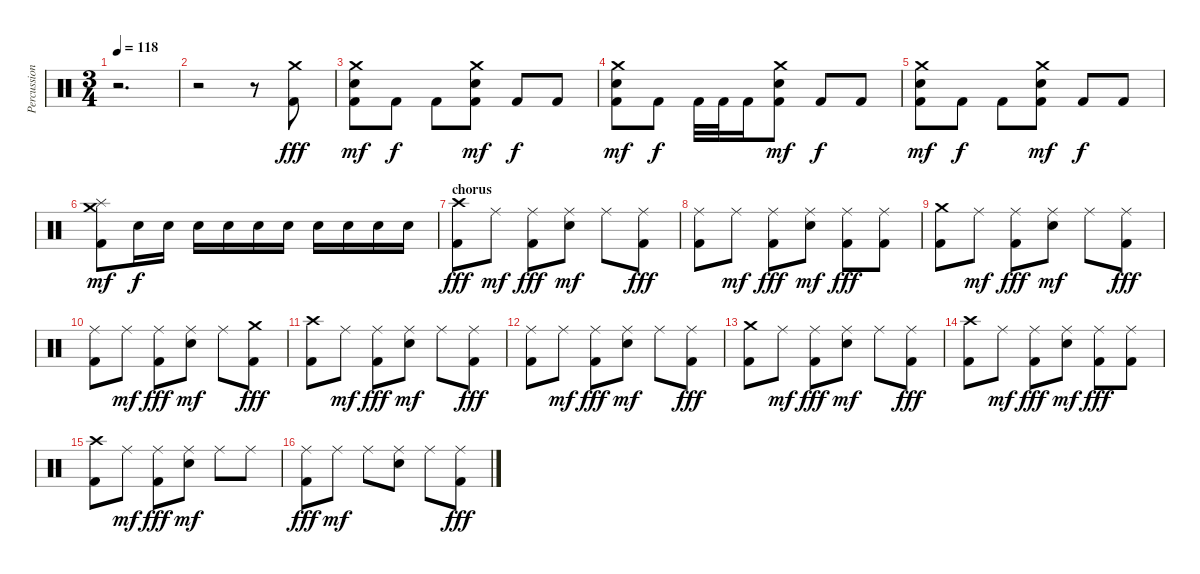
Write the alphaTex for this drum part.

\track ("Percussion" "Percussion") {instrument percussion}
\staff {score}
\articulation defaults
\ts (3 4)
\tempo 118
\clef neutral
\ks c
r.2{d dy fff} |
r.2 r.8 ("Crash medium (hit)" "Kick (hit) 2").8 |
("Crash medium (hit)" "Electric Snare (hit)" "Kick (hit) 2").8{dy mf} "Kick (hit) 2".8{dy f} "Kick (hit) 2".8 ("Crash medium (hit)" "Electric Snare (hit)" "Kick (hit) 2").8{dy mf} "Kick (hit) 2".8{dy f} "Kick (hit) 2".8 |
("Crash medium (hit)" "Electric Snare (hit)" "Kick (hit) 2").8{dy mf} "Kick (hit) 2".8{dy f} "Kick (hit) 2".32 "Kick (hit) 2".32 "Kick (hit) 2".16 ("Crash medium (hit)" "Electric Snare (hit)" "Kick (hit) 2").8{dy mf} "Kick (hit) 2".8{dy f} "Kick (hit) 2".8 |
("Crash medium (hit)" "Electric Snare (hit)" "Kick (hit) 2").8{dy mf} "Kick (hit) 2".8{dy f} "Kick (hit) 2".8 ("Crash medium (hit)" "Electric Snare (hit)" "Kick (hit) 2").8{dy mf} "Kick (hit) 2".8{dy f} "Kick (hit) 2".8 |
("Crash medium (hit)" "Splash (hit)" "Kick (hit) 2").8{dy mf} "Electric Snare (hit)".16{dy f} "Electric Snare (hit)".16 "Electric Snare (hit)".16 "Electric Snare (hit)".16 "Electric Snare (hit)".16 "Electric Snare (hit)".16 "Electric Snare (hit)".16 "Electric Snare (hit)".16 "Electric Snare (hit)".16 "Electric Snare (hit)".16 |
\section ("" "chorus")
("Crash high (hit)" "Kick (hit) 2").8{dy fff} "Ride (middle)".8{dy mf} ("Ride (middle)" "Kick (hit) 2").8{dy fff} ("Ride (middle)" "Electric Snare (hit)").8{dy mf} "Ride (middle)".8 ("Ride (middle)" "Kick (hit) 2").8{dy fff} |
("Ride (middle)" "Kick (hit) 2").8 "Ride (middle)".8{dy mf} ("Ride (middle)" "Kick (hit) 2").8{dy fff} ("Ride (middle)" "Electric Snare (hit)").8{dy mf} ("Ride (middle)" "Kick (hit) 2").8{dy fff} ("Ride (middle)" "Kick (hit) 2").8 |
("Crash medium (hit)" "Kick (hit) 2").8 "Ride (middle)".8{dy mf} ("Ride (middle)" "Kick (hit) 2").8{dy fff} ("Ride (middle)" "Electric Snare (hit)").8{dy mf} "Ride (middle)".8 ("Ride (middle)" "Kick (hit) 2").8{dy fff} |
("Ride (middle)" "Kick (hit) 2").8 "Ride (middle)".8{dy mf} ("Ride (middle)" "Kick (hit) 2").8{dy fff} ("Ride (middle)" "Electric Snare (hit)").8{dy mf} "Ride (middle)".8 ("Crash medium (hit)" "Kick (hit) 2").8{dy fff} |
("Crash high (hit)" "Kick (hit) 2").8 "Ride (middle)".8{dy mf} ("Ride (middle)" "Kick (hit) 2").8{dy fff} ("Ride (middle)" "Electric Snare (hit)").8{dy mf} "Ride (middle)".8 ("Ride (middle)" "Kick (hit) 2").8{dy fff} |
("Ride (middle)" "Kick (hit) 2").8 "Ride (middle)".8{dy mf} ("Ride (middle)" "Kick (hit) 2").8{dy fff} ("Ride (middle)" "Electric Snare (hit)").8{dy mf} "Ride (middle)".8 ("Ride (middle)" "Kick (hit) 2").8{dy fff} |
("Crash medium (hit)" "Kick (hit) 2").8 "Ride (middle)".8{dy mf} ("Ride (middle)" "Kick (hit) 2").8{dy fff} ("Ride (middle)" "Electric Snare (hit)").8{dy mf} "Ride (middle)".8 ("Ride (middle)" "Kick (hit) 2").8{dy fff} |
("Crash high (hit)" "Kick (hit) 2").8 "Ride (middle)".8{dy mf} ("Ride (middle)" "Kick (hit) 2").8{dy fff} ("Ride (middle)" "Electric Snare (hit)").8{dy mf} ("Ride (middle)" "Kick (hit) 2").8{dy fff} ("Ride (middle)" "Kick (hit) 2").8 |
\section ("" "")
("Crash high (hit)" "Kick (hit) 2").8 "Ride (middle)".8{dy mf} ("Ride (middle)" "Kick (hit) 2").8{dy fff} ("Ride (middle)" "Electric Snare (hit)").8{dy mf} "Ride (middle)".8 "Ride (middle)".8 |
("Ride (middle)" "Kick (hit) 2").8{dy fff} "Ride (middle)".8{dy mf} "Ride (middle)".8 ("Ride (middle)" "Electric Snare (hit)").8 "Ride (middle)".8 ("Ride (middle)" "Kick (hit) 2").8{dy fff}
